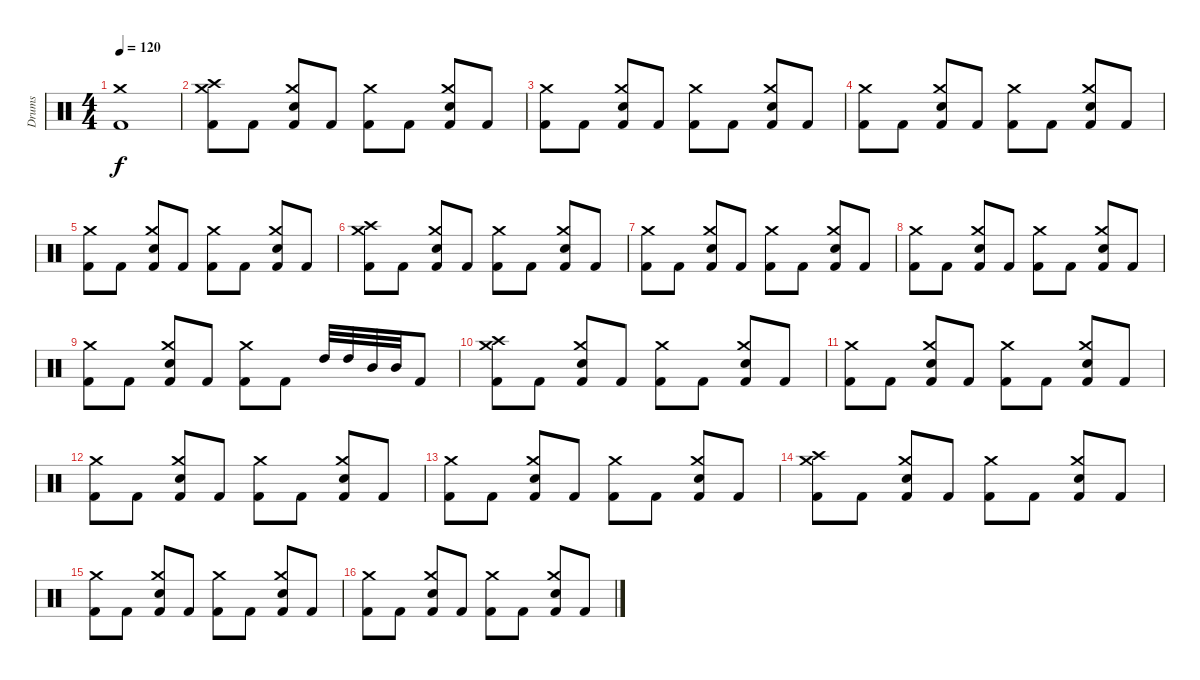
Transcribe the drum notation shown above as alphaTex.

\track ("Drums" "Drums") {instrument percussion}
\staff {score}
\articulation defaults
\ts (4 4)
\tempo 120
\clef neutral
\ks c
("Kick (hit) 2" "Crash medium (hit)").1{dy f} |
("Kick (hit) 2" "Crash high (hit)" "Crash medium (hit)").8 "Kick (hit) 2".8 ("Kick (hit) 2" "Snare (hit) 2" "Crash medium (hit)").8 "Kick (hit) 2".8 ("Kick (hit) 2" "Crash medium (hit)").8 "Kick (hit) 2".8 ("Kick (hit) 2" "Snare (hit) 2" "Crash medium (hit)").8 "Kick (hit) 2".8 |
("Kick (hit) 2" "Crash medium (hit)").8 "Kick (hit) 2".8 ("Kick (hit) 2" "Snare (hit) 2" "Crash medium (hit)").8 "Kick (hit) 2".8 ("Kick (hit) 2" "Crash medium (hit)").8 "Kick (hit) 2".8 ("Kick (hit) 2" "Snare (hit) 2" "Crash medium (hit)").8 "Kick (hit) 2".8 |
("Kick (hit) 2" "Crash medium (hit)").8 "Kick (hit) 2".8 ("Kick (hit) 2" "Snare (hit) 2" "Crash medium (hit)").8 "Kick (hit) 2".8 ("Kick (hit) 2" "Crash medium (hit)").8 "Kick (hit) 2".8 ("Kick (hit) 2" "Snare (hit) 2" "Crash medium (hit)").8 "Kick (hit) 2".8 |
("Kick (hit) 2" "Crash medium (hit)").8 "Kick (hit) 2".8 ("Kick (hit) 2" "Snare (hit) 2" "Crash medium (hit)").8 "Kick (hit) 2".8 ("Kick (hit) 2" "Crash medium (hit)").8 "Kick (hit) 2".8 ("Kick (hit) 2" "Snare (hit) 2" "Crash medium (hit)").8 "Kick (hit) 2".8 |
("Kick (hit) 2" "Crash high (hit)" "Crash medium (hit)").8 "Kick (hit) 2".8 ("Kick (hit) 2" "Snare (hit) 2" "Crash medium (hit)").8 "Kick (hit) 2".8 ("Kick (hit) 2" "Crash medium (hit)").8 "Kick (hit) 2".8 ("Kick (hit) 2" "Snare (hit) 2" "Crash medium (hit)").8 "Kick (hit) 2".8 |
("Kick (hit) 2" "Crash medium (hit)").8 "Kick (hit) 2".8 ("Kick (hit) 2" "Snare (hit) 2" "Crash medium (hit)").8 "Kick (hit) 2".8 ("Kick (hit) 2" "Crash medium (hit)").8 "Kick (hit) 2".8 ("Kick (hit) 2" "Snare (hit) 2" "Crash medium (hit)").8 "Kick (hit) 2".8 |
("Kick (hit) 2" "Crash medium (hit)").8 "Kick (hit) 2".8 ("Kick (hit) 2" "Snare (hit) 2" "Crash medium (hit)").8 "Kick (hit) 2".8 ("Kick (hit) 2" "Crash medium (hit)").8 "Kick (hit) 2".8 ("Kick (hit) 2" "Snare (hit) 2" "Crash medium (hit)").8 "Kick (hit) 2".8 |
("Kick (hit) 2" "Crash medium (hit)").8 "Kick (hit) 2".8 ("Kick (hit) 2" "Snare (hit) 2" "Crash medium (hit)").8 "Kick (hit) 2".8 ("Kick (hit) 2" "Crash medium (hit)").8 "Kick (hit) 2".8 "High Tom (hit)".32 "High Tom (hit)".32 "Mid Tom (hit)".32 "Mid Tom (hit)".32 "Kick (hit) 2".8 |
("Kick (hit) 2" "Crash high (hit)" "Crash medium (hit)").8 "Kick (hit) 2".8 ("Kick (hit) 2" "Snare (hit) 2" "Crash medium (hit)").8 "Kick (hit) 2".8 ("Kick (hit) 2" "Crash medium (hit)").8 "Kick (hit) 2".8 ("Kick (hit) 2" "Snare (hit) 2" "Crash medium (hit)").8 "Kick (hit) 2".8 |
("Kick (hit) 2" "Crash medium (hit)").8 "Kick (hit) 2".8 ("Kick (hit) 2" "Snare (hit) 2" "Crash medium (hit)").8 "Kick (hit) 2".8 ("Kick (hit) 2" "Crash medium (hit)").8 "Kick (hit) 2".8 ("Kick (hit) 2" "Snare (hit) 2" "Crash medium (hit)").8 "Kick (hit) 2".8 |
("Kick (hit) 2" "Crash medium (hit)").8 "Kick (hit) 2".8 ("Kick (hit) 2" "Snare (hit) 2" "Crash medium (hit)").8 "Kick (hit) 2".8 ("Kick (hit) 2" "Crash medium (hit)").8 "Kick (hit) 2".8 ("Kick (hit) 2" "Snare (hit) 2" "Crash medium (hit)").8 "Kick (hit) 2".8 |
("Kick (hit) 2" "Crash medium (hit)").8 "Kick (hit) 2".8 ("Kick (hit) 2" "Snare (hit) 2" "Crash medium (hit)").8 "Kick (hit) 2".8 ("Kick (hit) 2" "Crash medium (hit)").8 "Kick (hit) 2".8 ("Kick (hit) 2" "Snare (hit) 2" "Crash medium (hit)").8 "Kick (hit) 2".8 |
("Kick (hit) 2" "Crash high (hit)" "Crash medium (hit)").8 "Kick (hit) 2".8 ("Kick (hit) 2" "Snare (hit) 2" "Crash medium (hit)").8 "Kick (hit) 2".8 ("Kick (hit) 2" "Crash medium (hit)").8 "Kick (hit) 2".8 ("Kick (hit) 2" "Snare (hit) 2" "Crash medium (hit)").8 "Kick (hit) 2".8 |
("Kick (hit) 2" "Crash medium (hit)").8 "Kick (hit) 2".8 ("Kick (hit) 2" "Snare (hit) 2" "Crash medium (hit)").8 "Kick (hit) 2".8 ("Kick (hit) 2" "Crash medium (hit)").8 "Kick (hit) 2".8 ("Kick (hit) 2" "Snare (hit) 2" "Crash medium (hit)").8 "Kick (hit) 2".8 |
("Kick (hit) 2" "Crash medium (hit)").8 "Kick (hit) 2".8 ("Kick (hit) 2" "Snare (hit) 2" "Crash medium (hit)").8 "Kick (hit) 2".8 ("Kick (hit) 2" "Crash medium (hit)").8 "Kick (hit) 2".8 ("Kick (hit) 2" "Snare (hit) 2" "Crash medium (hit)").8 "Kick (hit) 2".8
